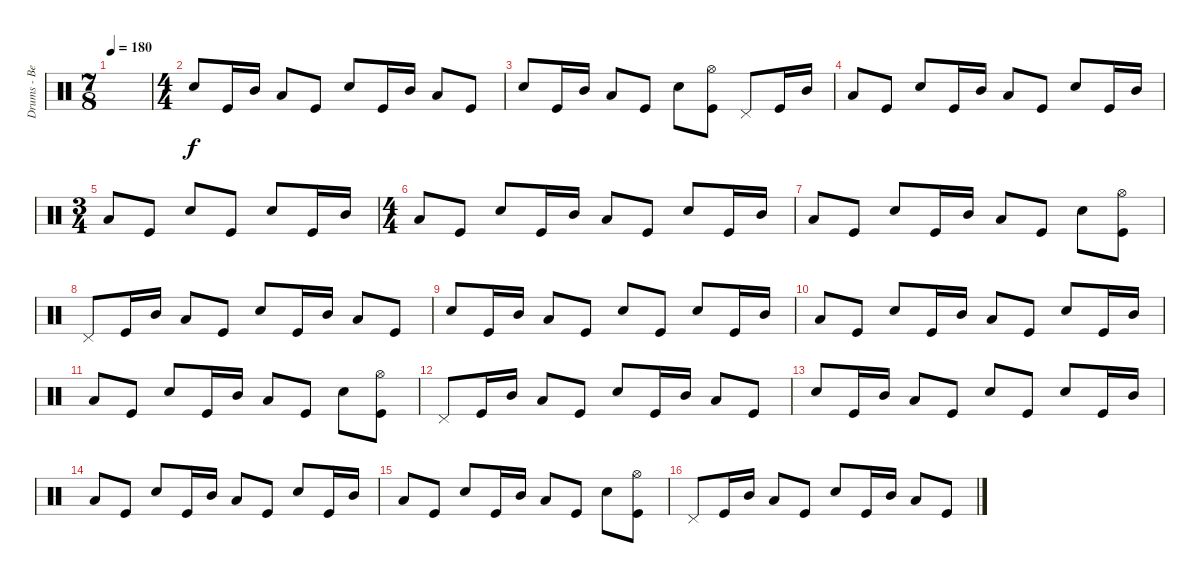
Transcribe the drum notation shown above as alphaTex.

\track ("Drums - Ben Johnston" "Drums - Be") {instrument percussion}
\staff {score}
\articulation defaults
\ts (7 8)
\tempo 180
\clef neutral
\ks c
|
\ts (4 4)
"Snare (hit) 2".8 "Kick (hit)".16 "Mid Tom (hit)".16 "Low Tom (hit)".8 "Kick (hit)".8 "Snare (hit) 2".8 "Kick (hit)".16 "Mid Tom (hit)".16 "Low Tom (hit)".8 "Kick (hit)".8 |
"Snare (hit) 2".8 "Kick (hit)".16 "Mid Tom (hit)".16 "Low Tom (hit)".8 "Kick (hit)".8 "Snare (hit) 2".8 ("Hi-Hat (open)" "Kick (hit)").8 "Pedal Hi-Hat (hit)".8 "Kick (hit)".16 "Mid Tom (hit)".16 |
"Low Tom (hit)".8 "Kick (hit)".8 "Snare (hit) 2".8 "Kick (hit)".16 "Mid Tom (hit)".16 "Low Tom (hit)".8 "Kick (hit)".8 "Snare (hit) 2".8 "Kick (hit)".16 "Mid Tom (hit)".16 |
\ts (3 4)
"Low Tom (hit)".8 "Kick (hit)".8 "Snare (hit) 2".8 "Kick (hit)".8 "Snare (hit) 2".8 "Kick (hit)".16 "Mid Tom (hit)".16 |
\ts (4 4)
"Low Tom (hit)".8 "Kick (hit)".8 "Snare (hit) 2".8 "Kick (hit)".16 "Mid Tom (hit)".16 "Low Tom (hit)".8 "Kick (hit)".8 "Snare (hit) 2".8 "Kick (hit)".16 "Mid Tom (hit)".16 |
"Low Tom (hit)".8 "Kick (hit)".8 "Snare (hit) 2".8 "Kick (hit)".16 "Mid Tom (hit)".16 "Low Tom (hit)".8 "Kick (hit)".8 "Snare (hit) 2".8 ("Hi-Hat (open)" "Kick (hit)").8 |
"Pedal Hi-Hat (hit)".8 "Kick (hit)".16 "Mid Tom (hit)".16 "Low Tom (hit)".8 "Kick (hit)".8 "Snare (hit) 2".8 "Kick (hit)".16 "Mid Tom (hit)".16 "Low Tom (hit)".8 "Kick (hit)".8 |
"Snare (hit) 2".8 "Kick (hit)".16 "Mid Tom (hit)".16 "Low Tom (hit)".8 "Kick (hit)".8 "Snare (hit) 2".8 "Kick (hit)".8 "Snare (hit) 2".8 "Kick (hit)".16 "Mid Tom (hit)".16 |
"Low Tom (hit)".8 "Kick (hit)".8 "Snare (hit) 2".8 "Kick (hit)".16 "Mid Tom (hit)".16 "Low Tom (hit)".8 "Kick (hit)".8 "Snare (hit) 2".8 "Kick (hit)".16 "Mid Tom (hit)".16 |
"Low Tom (hit)".8 "Kick (hit)".8 "Snare (hit) 2".8 "Kick (hit)".16 "Mid Tom (hit)".16 "Low Tom (hit)".8 "Kick (hit)".8 "Snare (hit) 2".8 ("Hi-Hat (open)" "Kick (hit)").8 |
"Pedal Hi-Hat (hit)".8 "Kick (hit)".16 "Mid Tom (hit)".16 "Low Tom (hit)".8 "Kick (hit)".8 "Snare (hit) 2".8 "Kick (hit)".16 "Mid Tom (hit)".16 "Low Tom (hit)".8 "Kick (hit)".8 |
"Snare (hit) 2".8 "Kick (hit)".16 "Mid Tom (hit)".16 "Low Tom (hit)".8 "Kick (hit)".8 "Snare (hit) 2".8 "Kick (hit)".8 "Snare (hit) 2".8 "Kick (hit)".16 "Mid Tom (hit)".16 |
"Low Tom (hit)".8 "Kick (hit)".8 "Snare (hit) 2".8 "Kick (hit)".16 "Mid Tom (hit)".16 "Low Tom (hit)".8 "Kick (hit)".8 "Snare (hit) 2".8 "Kick (hit)".16 "Mid Tom (hit)".16 |
"Low Tom (hit)".8 "Kick (hit)".8 "Snare (hit) 2".8 "Kick (hit)".16 "Mid Tom (hit)".16 "Low Tom (hit)".8 "Kick (hit)".8 "Snare (hit) 2".8 ("Hi-Hat (open)" "Kick (hit)").8 |
"Pedal Hi-Hat (hit)".8 "Kick (hit)".16 "Mid Tom (hit)".16 "Low Tom (hit)".8 "Kick (hit)".8 "Snare (hit) 2".8 "Kick (hit)".16 "Mid Tom (hit)".16 "Low Tom (hit)".8 "Kick (hit)".8
